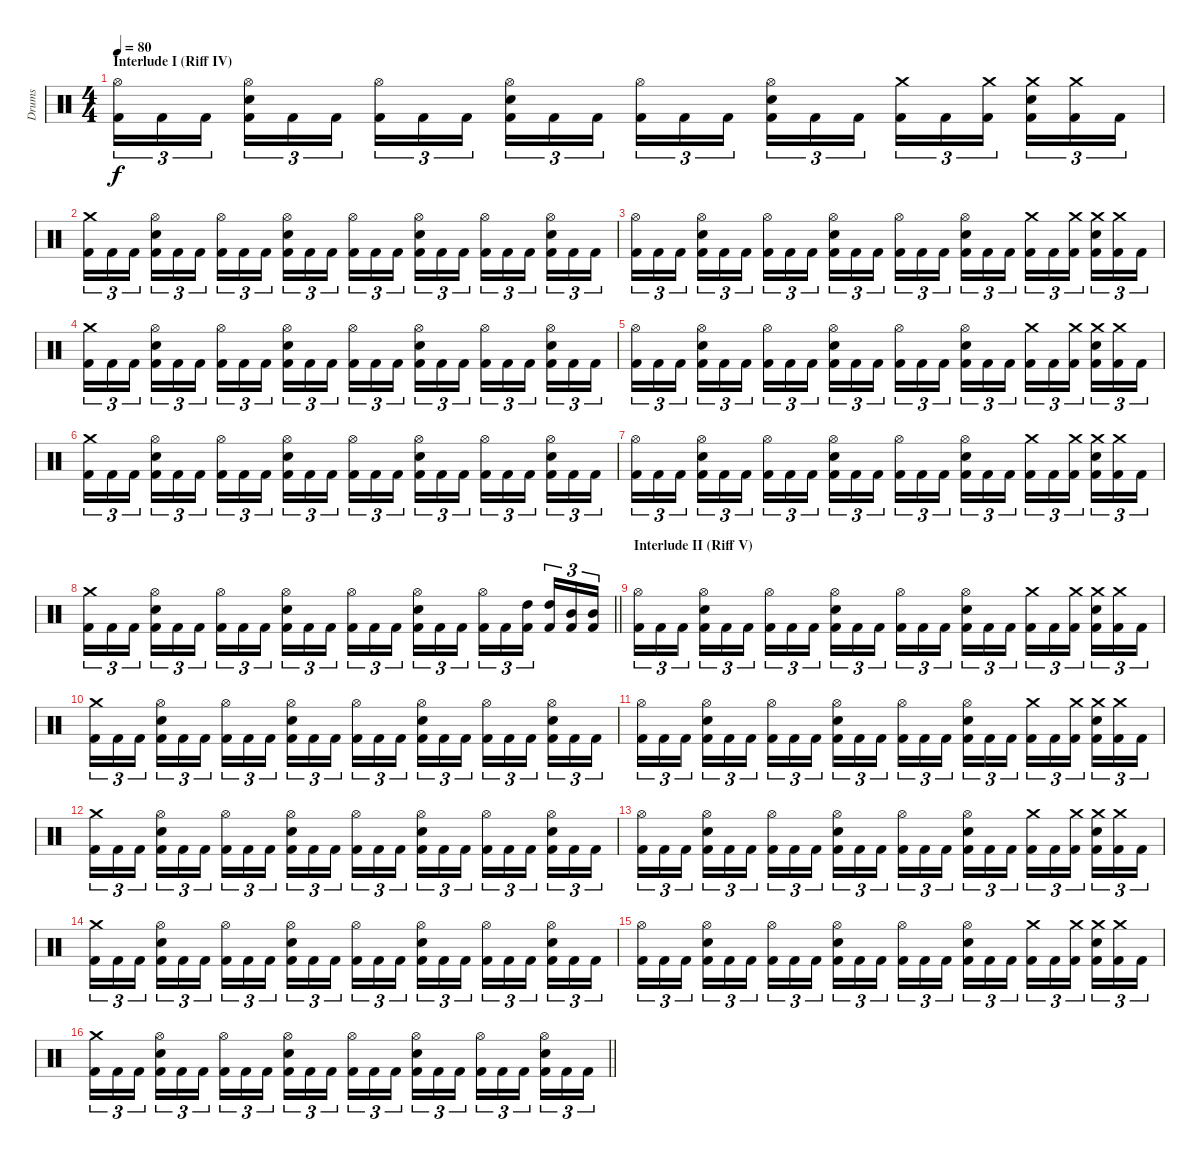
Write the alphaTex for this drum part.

\track ("Drums" "Drums") {instrument percussion}
\staff {score}
\articulation defaults
\ts (4 4)
\section ("" "Interlude I (Riff IV)")
\tempo 80
\clef neutral
\ks c
("Hi-Hat (open)" "Kick (hit) 2").16{tu (3 2) dy f} "Kick (hit) 2".16{tu (3 2)} "Kick (hit) 2".16{tu (3 2) beam splitsecondary} ("Hi-Hat (open)" "Electric Snare (hit)" "Kick (hit) 2").16{tu (3 2)} "Kick (hit) 2".16{tu (3 2)} "Kick (hit) 2".16{tu (3 2)} ("Hi-Hat (open)" "Kick (hit) 2").16{tu (3 2)} "Kick (hit) 2".16{tu (3 2)} "Kick (hit) 2".16{tu (3 2) beam splitsecondary} ("Hi-Hat (open)" "Electric Snare (hit)" "Kick (hit) 2").16{tu (3 2)} "Kick (hit) 2".16{tu (3 2)} "Kick (hit) 2".16{tu (3 2)} ("Hi-Hat (open)" "Kick (hit) 2").16{tu (3 2)} "Kick (hit) 2".16{tu (3 2)} "Kick (hit) 2".16{tu (3 2) beam splitsecondary} ("Hi-Hat (open)" "Electric Snare (hit)" "Kick (hit) 2").16{tu (3 2)} "Kick (hit) 2".16{tu (3 2)} "Kick (hit) 2".16{tu (3 2)} ("Crash medium (hit)" "Kick (hit) 2").16{tu (3 2)} "Kick (hit) 2".16{tu (3 2)} ("Crash medium (hit)" "Kick (hit) 2").16{tu (3 2) beam splitsecondary} ("Crash medium (hit)" "Electric Snare (hit)" "Kick (hit) 2").16{tu (3 2)} ("Crash medium (hit)" "Kick (hit) 2").16{tu (3 2)} "Kick (hit) 2".16{tu (3 2)} |
("Crash medium (hit)" "Kick (hit) 2").16{tu (3 2)} "Kick (hit) 2".16{tu (3 2)} "Kick (hit) 2".16{tu (3 2) beam splitsecondary} ("Hi-Hat (open)" "Electric Snare (hit)" "Kick (hit) 2").16{tu (3 2)} "Kick (hit) 2".16{tu (3 2)} "Kick (hit) 2".16{tu (3 2)} ("Hi-Hat (open)" "Kick (hit) 2").16{tu (3 2)} "Kick (hit) 2".16{tu (3 2)} "Kick (hit) 2".16{tu (3 2) beam splitsecondary} ("Hi-Hat (open)" "Electric Snare (hit)" "Kick (hit) 2").16{tu (3 2)} "Kick (hit) 2".16{tu (3 2)} "Kick (hit) 2".16{tu (3 2)} ("Hi-Hat (open)" "Kick (hit) 2").16{tu (3 2)} "Kick (hit) 2".16{tu (3 2)} "Kick (hit) 2".16{tu (3 2) beam splitsecondary} ("Hi-Hat (open)" "Electric Snare (hit)" "Kick (hit) 2").16{tu (3 2)} "Kick (hit) 2".16{tu (3 2)} "Kick (hit) 2".16{tu (3 2)} ("Hi-Hat (open)" "Kick (hit) 2").16{tu (3 2)} "Kick (hit) 2".16{tu (3 2)} "Kick (hit) 2".16{tu (3 2) beam splitsecondary} ("Hi-Hat (open)" "Electric Snare (hit)" "Kick (hit) 2").16{tu (3 2)} "Kick (hit) 2".16{tu (3 2)} "Kick (hit) 2".16{tu (3 2)} |
("Hi-Hat (open)" "Kick (hit) 2").16{tu (3 2)} "Kick (hit) 2".16{tu (3 2)} "Kick (hit) 2".16{tu (3 2) beam splitsecondary} ("Hi-Hat (open)" "Electric Snare (hit)" "Kick (hit) 2").16{tu (3 2)} "Kick (hit) 2".16{tu (3 2)} "Kick (hit) 2".16{tu (3 2)} ("Hi-Hat (open)" "Kick (hit) 2").16{tu (3 2)} "Kick (hit) 2".16{tu (3 2)} "Kick (hit) 2".16{tu (3 2) beam splitsecondary} ("Hi-Hat (open)" "Electric Snare (hit)" "Kick (hit) 2").16{tu (3 2)} "Kick (hit) 2".16{tu (3 2)} "Kick (hit) 2".16{tu (3 2)} ("Hi-Hat (open)" "Kick (hit) 2").16{tu (3 2)} "Kick (hit) 2".16{tu (3 2)} "Kick (hit) 2".16{tu (3 2) beam splitsecondary} ("Hi-Hat (open)" "Electric Snare (hit)" "Kick (hit) 2").16{tu (3 2)} "Kick (hit) 2".16{tu (3 2)} "Kick (hit) 2".16{tu (3 2)} ("Crash medium (hit)" "Kick (hit) 2").16{tu (3 2)} "Kick (hit) 2".16{tu (3 2)} ("Crash medium (hit)" "Kick (hit) 2").16{tu (3 2) beam splitsecondary} ("Crash medium (hit)" "Electric Snare (hit)" "Kick (hit) 2").16{tu (3 2)} ("Crash medium (hit)" "Kick (hit) 2").16{tu (3 2)} "Kick (hit) 2".16{tu (3 2)} |
("Crash medium (hit)" "Kick (hit) 2").16{tu (3 2)} "Kick (hit) 2".16{tu (3 2)} "Kick (hit) 2".16{tu (3 2) beam splitsecondary} ("Hi-Hat (open)" "Electric Snare (hit)" "Kick (hit) 2").16{tu (3 2)} "Kick (hit) 2".16{tu (3 2)} "Kick (hit) 2".16{tu (3 2)} ("Hi-Hat (open)" "Kick (hit) 2").16{tu (3 2)} "Kick (hit) 2".16{tu (3 2)} "Kick (hit) 2".16{tu (3 2) beam splitsecondary} ("Hi-Hat (open)" "Electric Snare (hit)" "Kick (hit) 2").16{tu (3 2)} "Kick (hit) 2".16{tu (3 2)} "Kick (hit) 2".16{tu (3 2)} ("Hi-Hat (open)" "Kick (hit) 2").16{tu (3 2)} "Kick (hit) 2".16{tu (3 2)} "Kick (hit) 2".16{tu (3 2) beam splitsecondary} ("Hi-Hat (open)" "Electric Snare (hit)" "Kick (hit) 2").16{tu (3 2)} "Kick (hit) 2".16{tu (3 2)} "Kick (hit) 2".16{tu (3 2)} ("Hi-Hat (open)" "Kick (hit) 2").16{tu (3 2)} "Kick (hit) 2".16{tu (3 2)} "Kick (hit) 2".16{tu (3 2) beam splitsecondary} ("Hi-Hat (open)" "Electric Snare (hit)" "Kick (hit) 2").16{tu (3 2)} "Kick (hit) 2".16{tu (3 2)} "Kick (hit) 2".16{tu (3 2)} |
("Hi-Hat (open)" "Kick (hit) 2").16{tu (3 2)} "Kick (hit) 2".16{tu (3 2)} "Kick (hit) 2".16{tu (3 2) beam splitsecondary} ("Hi-Hat (open)" "Electric Snare (hit)" "Kick (hit) 2").16{tu (3 2)} "Kick (hit) 2".16{tu (3 2)} "Kick (hit) 2".16{tu (3 2)} ("Hi-Hat (open)" "Kick (hit) 2").16{tu (3 2)} "Kick (hit) 2".16{tu (3 2)} "Kick (hit) 2".16{tu (3 2) beam splitsecondary} ("Hi-Hat (open)" "Electric Snare (hit)" "Kick (hit) 2").16{tu (3 2)} "Kick (hit) 2".16{tu (3 2)} "Kick (hit) 2".16{tu (3 2)} ("Hi-Hat (open)" "Kick (hit) 2").16{tu (3 2)} "Kick (hit) 2".16{tu (3 2)} "Kick (hit) 2".16{tu (3 2) beam splitsecondary} ("Hi-Hat (open)" "Electric Snare (hit)" "Kick (hit) 2").16{tu (3 2)} "Kick (hit) 2".16{tu (3 2)} "Kick (hit) 2".16{tu (3 2)} ("Crash medium (hit)" "Kick (hit) 2").16{tu (3 2)} "Kick (hit) 2".16{tu (3 2)} ("Crash medium (hit)" "Kick (hit) 2").16{tu (3 2) beam splitsecondary} ("Crash medium (hit)" "Electric Snare (hit)" "Kick (hit) 2").16{tu (3 2)} ("Crash medium (hit)" "Kick (hit) 2").16{tu (3 2)} "Kick (hit) 2".16{tu (3 2)} |
("Crash medium (hit)" "Kick (hit) 2").16{tu (3 2)} "Kick (hit) 2".16{tu (3 2)} "Kick (hit) 2".16{tu (3 2) beam splitsecondary} ("Hi-Hat (open)" "Electric Snare (hit)" "Kick (hit) 2").16{tu (3 2)} "Kick (hit) 2".16{tu (3 2)} "Kick (hit) 2".16{tu (3 2)} ("Hi-Hat (open)" "Kick (hit) 2").16{tu (3 2)} "Kick (hit) 2".16{tu (3 2)} "Kick (hit) 2".16{tu (3 2) beam splitsecondary} ("Hi-Hat (open)" "Electric Snare (hit)" "Kick (hit) 2").16{tu (3 2)} "Kick (hit) 2".16{tu (3 2)} "Kick (hit) 2".16{tu (3 2)} ("Hi-Hat (open)" "Kick (hit) 2").16{tu (3 2)} "Kick (hit) 2".16{tu (3 2)} "Kick (hit) 2".16{tu (3 2) beam splitsecondary} ("Hi-Hat (open)" "Electric Snare (hit)" "Kick (hit) 2").16{tu (3 2)} "Kick (hit) 2".16{tu (3 2)} "Kick (hit) 2".16{tu (3 2)} ("Hi-Hat (open)" "Kick (hit) 2").16{tu (3 2)} "Kick (hit) 2".16{tu (3 2)} "Kick (hit) 2".16{tu (3 2) beam splitsecondary} ("Hi-Hat (open)" "Electric Snare (hit)" "Kick (hit) 2").16{tu (3 2)} "Kick (hit) 2".16{tu (3 2)} "Kick (hit) 2".16{tu (3 2)} |
("Hi-Hat (open)" "Kick (hit) 2").16{tu (3 2)} "Kick (hit) 2".16{tu (3 2)} "Kick (hit) 2".16{tu (3 2) beam splitsecondary} ("Hi-Hat (open)" "Electric Snare (hit)" "Kick (hit) 2").16{tu (3 2)} "Kick (hit) 2".16{tu (3 2)} "Kick (hit) 2".16{tu (3 2)} ("Hi-Hat (open)" "Kick (hit) 2").16{tu (3 2)} "Kick (hit) 2".16{tu (3 2)} "Kick (hit) 2".16{tu (3 2) beam splitsecondary} ("Hi-Hat (open)" "Electric Snare (hit)" "Kick (hit) 2").16{tu (3 2)} "Kick (hit) 2".16{tu (3 2)} "Kick (hit) 2".16{tu (3 2)} ("Hi-Hat (open)" "Kick (hit) 2").16{tu (3 2)} "Kick (hit) 2".16{tu (3 2)} "Kick (hit) 2".16{tu (3 2) beam splitsecondary} ("Hi-Hat (open)" "Electric Snare (hit)" "Kick (hit) 2").16{tu (3 2)} "Kick (hit) 2".16{tu (3 2)} "Kick (hit) 2".16{tu (3 2)} ("Crash medium (hit)" "Kick (hit) 2").16{tu (3 2)} "Kick (hit) 2".16{tu (3 2)} ("Crash medium (hit)" "Kick (hit) 2").16{tu (3 2) beam splitsecondary} ("Crash medium (hit)" "Electric Snare (hit)" "Kick (hit) 2").16{tu (3 2)} ("Crash medium (hit)" "Kick (hit) 2").16{tu (3 2)} "Kick (hit) 2".16{tu (3 2)} |
\barLineRight lightlight
("Crash medium (hit)" "Kick (hit) 2").16{tu (3 2)} "Kick (hit) 2".16{tu (3 2)} "Kick (hit) 2".16{tu (3 2) beam splitsecondary} ("Hi-Hat (open)" "Electric Snare (hit)" "Kick (hit) 2").16{tu (3 2)} "Kick (hit) 2".16{tu (3 2)} "Kick (hit) 2".16{tu (3 2)} ("Hi-Hat (open)" "Kick (hit) 2").16{tu (3 2)} "Kick (hit) 2".16{tu (3 2)} "Kick (hit) 2".16{tu (3 2) beam splitsecondary} ("Hi-Hat (open)" "Electric Snare (hit)" "Kick (hit) 2").16{tu (3 2)} "Kick (hit) 2".16{tu (3 2)} "Kick (hit) 2".16{tu (3 2)} ("Hi-Hat (open)" "Kick (hit) 2").16{tu (3 2)} "Kick (hit) 2".16{tu (3 2)} "Kick (hit) 2".16{tu (3 2) beam splitsecondary} ("Hi-Hat (open)" "Electric Snare (hit)" "Kick (hit) 2").16{tu (3 2)} "Kick (hit) 2".16{tu (3 2)} "Kick (hit) 2".16{tu (3 2)} ("Hi-Hat (open)" "Kick (hit) 2").16{tu (3 2)} "Kick (hit) 2".16{tu (3 2)} ("High Tom (hit)" "Kick (hit) 2").16{tu (3 2) beam splitsecondary} ("High Tom (hit)" "Kick (hit) 2").16{tu (3 2)} ("Mid Tom (hit)" "Kick (hit) 2").16{tu (3 2)} ("Mid Tom (hit)" "Kick (hit) 2").16{tu (3 2)} |
\section ("" "Interlude II (Riff V)")
("Hi-Hat (open)" "Kick (hit) 2").16{tu (3 2)} "Kick (hit) 2".16{tu (3 2)} "Kick (hit) 2".16{tu (3 2) beam splitsecondary} ("Hi-Hat (open)" "Electric Snare (hit)" "Kick (hit) 2").16{tu (3 2)} "Kick (hit) 2".16{tu (3 2)} "Kick (hit) 2".16{tu (3 2)} ("Hi-Hat (open)" "Kick (hit) 2").16{tu (3 2)} "Kick (hit) 2".16{tu (3 2)} "Kick (hit) 2".16{tu (3 2) beam splitsecondary} ("Hi-Hat (open)" "Electric Snare (hit)" "Kick (hit) 2").16{tu (3 2)} "Kick (hit) 2".16{tu (3 2)} "Kick (hit) 2".16{tu (3 2)} ("Hi-Hat (open)" "Kick (hit) 2").16{tu (3 2)} "Kick (hit) 2".16{tu (3 2)} "Kick (hit) 2".16{tu (3 2) beam splitsecondary} ("Hi-Hat (open)" "Electric Snare (hit)" "Kick (hit) 2").16{tu (3 2)} "Kick (hit) 2".16{tu (3 2)} "Kick (hit) 2".16{tu (3 2)} ("Crash medium (hit)" "Kick (hit) 2").16{tu (3 2)} "Kick (hit) 2".16{tu (3 2)} ("Crash medium (hit)" "Kick (hit) 2").16{tu (3 2) beam splitsecondary} ("Crash medium (hit)" "Electric Snare (hit)" "Kick (hit) 2").16{tu (3 2)} ("Crash medium (hit)" "Kick (hit) 2").16{tu (3 2)} "Kick (hit) 2".16{tu (3 2)} |
("Crash medium (hit)" "Kick (hit) 2").16{tu (3 2)} "Kick (hit) 2".16{tu (3 2)} "Kick (hit) 2".16{tu (3 2) beam splitsecondary} ("Hi-Hat (open)" "Electric Snare (hit)" "Kick (hit) 2").16{tu (3 2)} "Kick (hit) 2".16{tu (3 2)} "Kick (hit) 2".16{tu (3 2)} ("Hi-Hat (open)" "Kick (hit) 2").16{tu (3 2)} "Kick (hit) 2".16{tu (3 2)} "Kick (hit) 2".16{tu (3 2) beam splitsecondary} ("Hi-Hat (open)" "Electric Snare (hit)" "Kick (hit) 2").16{tu (3 2)} "Kick (hit) 2".16{tu (3 2)} "Kick (hit) 2".16{tu (3 2)} ("Hi-Hat (open)" "Kick (hit) 2").16{tu (3 2)} "Kick (hit) 2".16{tu (3 2)} "Kick (hit) 2".16{tu (3 2) beam splitsecondary} ("Hi-Hat (open)" "Electric Snare (hit)" "Kick (hit) 2").16{tu (3 2)} "Kick (hit) 2".16{tu (3 2)} "Kick (hit) 2".16{tu (3 2)} ("Hi-Hat (open)" "Kick (hit) 2").16{tu (3 2)} "Kick (hit) 2".16{tu (3 2)} "Kick (hit) 2".16{tu (3 2) beam splitsecondary} ("Hi-Hat (open)" "Electric Snare (hit)" "Kick (hit) 2").16{tu (3 2)} "Kick (hit) 2".16{tu (3 2)} "Kick (hit) 2".16{tu (3 2)} |
("Hi-Hat (open)" "Kick (hit) 2").16{tu (3 2)} "Kick (hit) 2".16{tu (3 2)} "Kick (hit) 2".16{tu (3 2) beam splitsecondary} ("Hi-Hat (open)" "Electric Snare (hit)" "Kick (hit) 2").16{tu (3 2)} "Kick (hit) 2".16{tu (3 2)} "Kick (hit) 2".16{tu (3 2)} ("Hi-Hat (open)" "Kick (hit) 2").16{tu (3 2)} "Kick (hit) 2".16{tu (3 2)} "Kick (hit) 2".16{tu (3 2) beam splitsecondary} ("Hi-Hat (open)" "Electric Snare (hit)" "Kick (hit) 2").16{tu (3 2)} "Kick (hit) 2".16{tu (3 2)} "Kick (hit) 2".16{tu (3 2)} ("Hi-Hat (open)" "Kick (hit) 2").16{tu (3 2)} "Kick (hit) 2".16{tu (3 2)} "Kick (hit) 2".16{tu (3 2) beam splitsecondary} ("Hi-Hat (open)" "Electric Snare (hit)" "Kick (hit) 2").16{tu (3 2)} "Kick (hit) 2".16{tu (3 2)} "Kick (hit) 2".16{tu (3 2)} ("Crash medium (hit)" "Kick (hit) 2").16{tu (3 2)} "Kick (hit) 2".16{tu (3 2)} ("Crash medium (hit)" "Kick (hit) 2").16{tu (3 2) beam splitsecondary} ("Crash medium (hit)" "Electric Snare (hit)" "Kick (hit) 2").16{tu (3 2)} ("Crash medium (hit)" "Kick (hit) 2").16{tu (3 2)} "Kick (hit) 2".16{tu (3 2)} |
("Crash medium (hit)" "Kick (hit) 2").16{tu (3 2)} "Kick (hit) 2".16{tu (3 2)} "Kick (hit) 2".16{tu (3 2) beam splitsecondary} ("Hi-Hat (open)" "Electric Snare (hit)" "Kick (hit) 2").16{tu (3 2)} "Kick (hit) 2".16{tu (3 2)} "Kick (hit) 2".16{tu (3 2)} ("Hi-Hat (open)" "Kick (hit) 2").16{tu (3 2)} "Kick (hit) 2".16{tu (3 2)} "Kick (hit) 2".16{tu (3 2) beam splitsecondary} ("Hi-Hat (open)" "Electric Snare (hit)" "Kick (hit) 2").16{tu (3 2)} "Kick (hit) 2".16{tu (3 2)} "Kick (hit) 2".16{tu (3 2)} ("Hi-Hat (open)" "Kick (hit) 2").16{tu (3 2)} "Kick (hit) 2".16{tu (3 2)} "Kick (hit) 2".16{tu (3 2) beam splitsecondary} ("Hi-Hat (open)" "Electric Snare (hit)" "Kick (hit) 2").16{tu (3 2)} "Kick (hit) 2".16{tu (3 2)} "Kick (hit) 2".16{tu (3 2)} ("Hi-Hat (open)" "Kick (hit) 2").16{tu (3 2)} "Kick (hit) 2".16{tu (3 2)} "Kick (hit) 2".16{tu (3 2) beam splitsecondary} ("Hi-Hat (open)" "Electric Snare (hit)" "Kick (hit) 2").16{tu (3 2)} "Kick (hit) 2".16{tu (3 2)} "Kick (hit) 2".16{tu (3 2)} |
("Hi-Hat (open)" "Kick (hit) 2").16{tu (3 2)} "Kick (hit) 2".16{tu (3 2)} "Kick (hit) 2".16{tu (3 2) beam splitsecondary} ("Hi-Hat (open)" "Electric Snare (hit)" "Kick (hit) 2").16{tu (3 2)} "Kick (hit) 2".16{tu (3 2)} "Kick (hit) 2".16{tu (3 2)} ("Hi-Hat (open)" "Kick (hit) 2").16{tu (3 2)} "Kick (hit) 2".16{tu (3 2)} "Kick (hit) 2".16{tu (3 2) beam splitsecondary} ("Hi-Hat (open)" "Electric Snare (hit)" "Kick (hit) 2").16{tu (3 2)} "Kick (hit) 2".16{tu (3 2)} "Kick (hit) 2".16{tu (3 2)} ("Hi-Hat (open)" "Kick (hit) 2").16{tu (3 2)} "Kick (hit) 2".16{tu (3 2)} "Kick (hit) 2".16{tu (3 2) beam splitsecondary} ("Hi-Hat (open)" "Electric Snare (hit)" "Kick (hit) 2").16{tu (3 2)} "Kick (hit) 2".16{tu (3 2)} "Kick (hit) 2".16{tu (3 2)} ("Crash medium (hit)" "Kick (hit) 2").16{tu (3 2)} "Kick (hit) 2".16{tu (3 2)} ("Crash medium (hit)" "Kick (hit) 2").16{tu (3 2) beam splitsecondary} ("Crash medium (hit)" "Electric Snare (hit)" "Kick (hit) 2").16{tu (3 2)} ("Crash medium (hit)" "Kick (hit) 2").16{tu (3 2)} "Kick (hit) 2".16{tu (3 2)} |
("Crash medium (hit)" "Kick (hit) 2").16{tu (3 2)} "Kick (hit) 2".16{tu (3 2)} "Kick (hit) 2".16{tu (3 2) beam splitsecondary} ("Hi-Hat (open)" "Electric Snare (hit)" "Kick (hit) 2").16{tu (3 2)} "Kick (hit) 2".16{tu (3 2)} "Kick (hit) 2".16{tu (3 2)} ("Hi-Hat (open)" "Kick (hit) 2").16{tu (3 2)} "Kick (hit) 2".16{tu (3 2)} "Kick (hit) 2".16{tu (3 2) beam splitsecondary} ("Hi-Hat (open)" "Electric Snare (hit)" "Kick (hit) 2").16{tu (3 2)} "Kick (hit) 2".16{tu (3 2)} "Kick (hit) 2".16{tu (3 2)} ("Hi-Hat (open)" "Kick (hit) 2").16{tu (3 2)} "Kick (hit) 2".16{tu (3 2)} "Kick (hit) 2".16{tu (3 2) beam splitsecondary} ("Hi-Hat (open)" "Electric Snare (hit)" "Kick (hit) 2").16{tu (3 2)} "Kick (hit) 2".16{tu (3 2)} "Kick (hit) 2".16{tu (3 2)} ("Hi-Hat (open)" "Kick (hit) 2").16{tu (3 2)} "Kick (hit) 2".16{tu (3 2)} "Kick (hit) 2".16{tu (3 2) beam splitsecondary} ("Hi-Hat (open)" "Electric Snare (hit)" "Kick (hit) 2").16{tu (3 2)} "Kick (hit) 2".16{tu (3 2)} "Kick (hit) 2".16{tu (3 2)} |
("Hi-Hat (open)" "Kick (hit) 2").16{tu (3 2)} "Kick (hit) 2".16{tu (3 2)} "Kick (hit) 2".16{tu (3 2) beam splitsecondary} ("Hi-Hat (open)" "Electric Snare (hit)" "Kick (hit) 2").16{tu (3 2)} "Kick (hit) 2".16{tu (3 2)} "Kick (hit) 2".16{tu (3 2)} ("Hi-Hat (open)" "Kick (hit) 2").16{tu (3 2)} "Kick (hit) 2".16{tu (3 2)} "Kick (hit) 2".16{tu (3 2) beam splitsecondary} ("Hi-Hat (open)" "Electric Snare (hit)" "Kick (hit) 2").16{tu (3 2)} "Kick (hit) 2".16{tu (3 2)} "Kick (hit) 2".16{tu (3 2)} ("Hi-Hat (open)" "Kick (hit) 2").16{tu (3 2)} "Kick (hit) 2".16{tu (3 2)} "Kick (hit) 2".16{tu (3 2) beam splitsecondary} ("Hi-Hat (open)" "Electric Snare (hit)" "Kick (hit) 2").16{tu (3 2)} "Kick (hit) 2".16{tu (3 2)} "Kick (hit) 2".16{tu (3 2)} ("Crash medium (hit)" "Kick (hit) 2").16{tu (3 2)} "Kick (hit) 2".16{tu (3 2)} ("Crash medium (hit)" "Kick (hit) 2").16{tu (3 2) beam splitsecondary} ("Crash medium (hit)" "Electric Snare (hit)" "Kick (hit) 2").16{tu (3 2)} ("Crash medium (hit)" "Kick (hit) 2").16{tu (3 2)} "Kick (hit) 2".16{tu (3 2)} |
\barLineRight lightlight
("Crash medium (hit)" "Kick (hit) 2").16{tu (3 2)} "Kick (hit) 2".16{tu (3 2)} "Kick (hit) 2".16{tu (3 2) beam splitsecondary} ("Hi-Hat (open)" "Electric Snare (hit)" "Kick (hit) 2").16{tu (3 2)} "Kick (hit) 2".16{tu (3 2)} "Kick (hit) 2".16{tu (3 2)} ("Hi-Hat (open)" "Kick (hit) 2").16{tu (3 2)} "Kick (hit) 2".16{tu (3 2)} "Kick (hit) 2".16{tu (3 2) beam splitsecondary} ("Hi-Hat (open)" "Electric Snare (hit)" "Kick (hit) 2").16{tu (3 2)} "Kick (hit) 2".16{tu (3 2)} "Kick (hit) 2".16{tu (3 2)} ("Hi-Hat (open)" "Kick (hit) 2").16{tu (3 2)} "Kick (hit) 2".16{tu (3 2)} "Kick (hit) 2".16{tu (3 2) beam splitsecondary} ("Hi-Hat (open)" "Electric Snare (hit)" "Kick (hit) 2").16{tu (3 2)} "Kick (hit) 2".16{tu (3 2)} "Kick (hit) 2".16{tu (3 2)} ("Hi-Hat (open)" "Kick (hit) 2").16{tu (3 2)} "Kick (hit) 2".16{tu (3 2)} "Kick (hit) 2".16{tu (3 2) beam splitsecondary} ("Hi-Hat (open)" "Electric Snare (hit)" "Kick (hit) 2").16{tu (3 2)} "Kick (hit) 2".16{tu (3 2)} "Kick (hit) 2".16{tu (3 2)}
